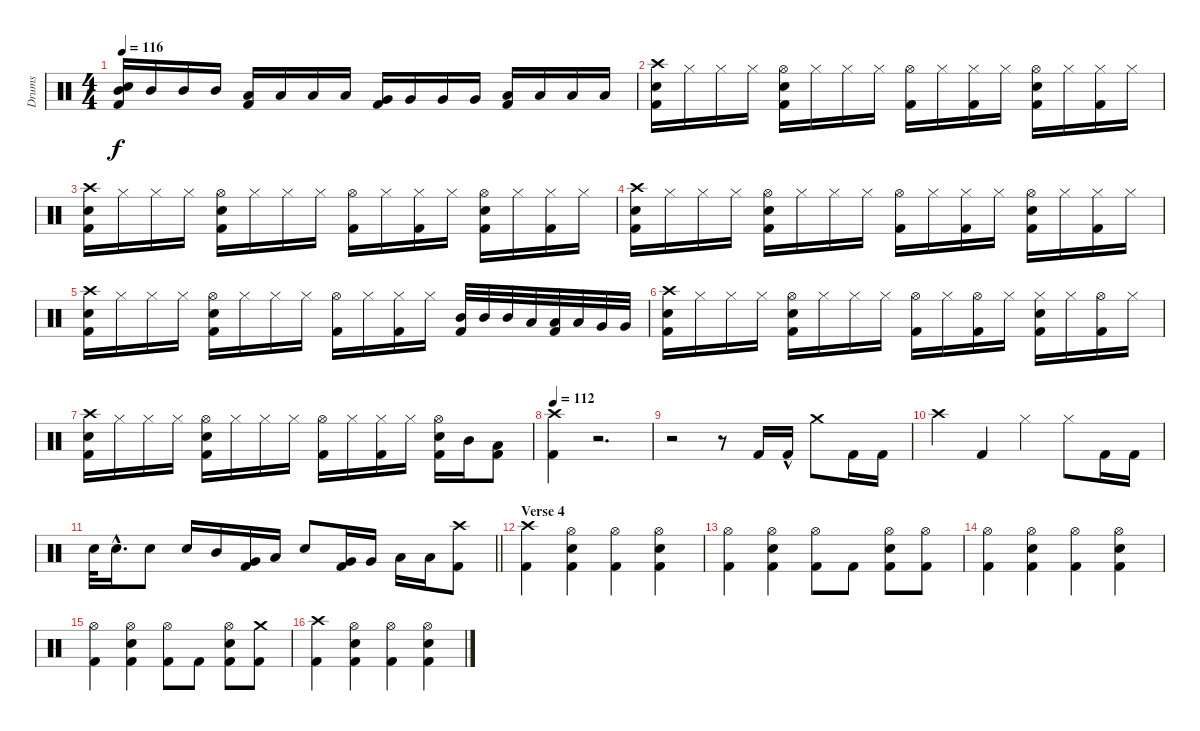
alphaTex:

\track ("Drums" "Drums") {instrument percussion}
\staff {score}
\articulation defaults
\ts (4 4)
\tempo 116
\clef neutral
\ks c
("Mid Tom (hit)" "Snare (hit) 2" "Kick (hit) 2").16{dy f} "Mid Tom (hit)".16 "Mid Tom (hit)".16 "Mid Tom (hit)".16 ("Low Tom (hit)" "Kick (hit) 2").16 "Low Tom (hit)".16 "Low Tom (hit)".16 "Low Tom (hit)".16 ("Very Low Tom (hit)" "Kick (hit) 2").16 "Very Low Tom (hit)".16 "Very Low Tom (hit)".16 "Very Low Tom (hit)".16 ("Low Floor Tom (hit)" "Kick (hit) 2").16 "Low Floor Tom (hit)".16 "Low Floor Tom (hit)".16 "Low Floor Tom (hit)".16 |
("Kick (hit) 2" "Snare (hit) 2" "Crash high (hit)").16 "Hi-Hat (closed)".16 "Hi-Hat (closed)".16 "Hi-Hat (closed)".16 ("Hi-Hat (open)" "Kick (hit) 2" "Snare (hit) 2").16 "Hi-Hat (closed)".16 "Hi-Hat (closed)".16 "Hi-Hat (closed)".16 ("Kick (hit) 2" "Hi-Hat (open)").16 "Hi-Hat (closed)".16 ("Kick (hit) 2" "Hi-Hat (closed)").16 "Hi-Hat (closed)".16 ("Snare (hit) 2" "Kick (hit) 2" "Hi-Hat (open)").16 "Hi-Hat (closed)".16 ("Kick (hit) 2" "Hi-Hat (closed)").16 "Hi-Hat (closed)".16 |
("Kick (hit) 2" "Snare (hit) 2" "Crash high (hit)").16 "Hi-Hat (closed)".16 "Hi-Hat (closed)".16 "Hi-Hat (closed)".16 ("Hi-Hat (open)" "Kick (hit) 2" "Snare (hit) 2").16 "Hi-Hat (closed)".16 "Hi-Hat (closed)".16 "Hi-Hat (closed)".16 ("Kick (hit) 2" "Hi-Hat (open)").16 "Hi-Hat (closed)".16 ("Kick (hit) 2" "Hi-Hat (closed)").16 "Hi-Hat (closed)".16 ("Snare (hit) 2" "Kick (hit) 2" "Hi-Hat (open)").16 "Hi-Hat (closed)".16 ("Kick (hit) 2" "Hi-Hat (closed)").16 "Hi-Hat (closed)".16 |
("Kick (hit) 2" "Snare (hit) 2" "Crash high (hit)").16 "Hi-Hat (closed)".16 "Hi-Hat (closed)".16 "Hi-Hat (closed)".16 ("Hi-Hat (open)" "Kick (hit) 2" "Snare (hit) 2").16 "Hi-Hat (closed)".16 "Hi-Hat (closed)".16 "Hi-Hat (closed)".16 ("Kick (hit) 2" "Hi-Hat (open)").16 "Hi-Hat (closed)".16 ("Kick (hit) 2" "Hi-Hat (closed)").16 "Hi-Hat (closed)".16 ("Snare (hit) 2" "Kick (hit) 2" "Hi-Hat (open)").16 "Hi-Hat (closed)".16 ("Kick (hit) 2" "Hi-Hat (closed)").16 "Hi-Hat (closed)".16 |
("Kick (hit) 2" "Snare (hit) 2" "Crash high (hit)").16 "Hi-Hat (closed)".16 "Hi-Hat (closed)".16 "Hi-Hat (closed)".16 ("Hi-Hat (open)" "Kick (hit) 2" "Snare (hit) 2").16 "Hi-Hat (closed)".16 "Hi-Hat (closed)".16 "Hi-Hat (closed)".16 ("Kick (hit) 2" "Hi-Hat (open)").16 "Hi-Hat (closed)".16 ("Hi-Hat (closed)" "Kick (hit) 2").16 "Hi-Hat (closed)".16 ("Kick (hit) 2" "Mid Tom (hit)").32 "Mid Tom (hit)".32 "Mid Tom (hit)".32 "Low Tom (hit)".32 ("Kick (hit) 2" "Low Tom (hit)").32 "Low Tom (hit)".32 "Very Low Tom (hit)".32 "Very Low Tom (hit)".32 |
("Kick (hit) 2" "Snare (hit) 2" "Crash high (hit)").16 "Hi-Hat (closed)".16 "Hi-Hat (closed)".16 "Hi-Hat (closed)".16 ("Hi-Hat (open)" "Kick (hit) 2" "Snare (hit) 2").16 "Hi-Hat (closed)".16 "Hi-Hat (closed)".16 "Hi-Hat (closed)".16 ("Kick (hit) 2" "Hi-Hat (open)").16 "Hi-Hat (closed)".16 ("Kick (hit) 2" "Hi-Hat (open)").16 "Hi-Hat (closed)".16 ("Snare (hit) 2" "Kick (hit) 2" "Hi-Hat (closed)").16 "Hi-Hat (closed)".16 ("Kick (hit) 2" "Hi-Hat (open)").16 "Hi-Hat (closed)".16 |
("Kick (hit) 2" "Snare (hit) 2" "Crash high (hit)").16 "Hi-Hat (closed)".16 "Hi-Hat (closed)".16 "Hi-Hat (closed)".16 ("Hi-Hat (open)" "Kick (hit) 2" "Snare (hit) 2").16 "Hi-Hat (closed)".16 "Hi-Hat (closed)".16 "Hi-Hat (closed)".16 ("Kick (hit) 2" "Hi-Hat (open)").16 "Hi-Hat (closed)".16 ("Kick (hit) 2" "Hi-Hat (closed)").16 "Hi-Hat (closed)".16 ("Snare (hit) 2" "Kick (hit) 2" "Hi-Hat (open)").16 "Mid Tom (hit)".16 ("Kick (hit) 2" "Low Tom (hit)").8 |
\tempo 112
("Kick (hit) 2" "Crash high (hit)").4 r.2{d} |
r.2 r.8 "Kick (hit) 2".16 "Kick (hit) 2"{hac}.16 "Crash medium (hit)".8 "Kick (hit) 2".16 "Kick (hit) 2".16 |
"Crash high (hit)".4 "Kick (hit) 2".4 "Hi-Hat (closed)".4 "Hi-Hat (closed)".8 "Kick (hit) 2".16 "Kick (hit) 2".16 |
\barLineRight lightlight "Snare (hit) 2".32 "Snare (hit) 2"{hac}.16{d} "Snare (hit) 2".8 "Snare (hit) 2".16 "Mid Tom (hit)".16
("Kick (hit) 2" "Very Low Tom (hit)").16 "Low Floor Tom (hit)".16 "Snare (hit) 2".8 ("Kick (hit) 2" "Very Low Tom (hit)").16 "Very Low Tom (hit)".16 "Low Floor Tom (hit)".16 "Low Floor Tom (hit)".16 ("Kick (hit) 2" "Crash high (hit)").8 |
\section ("" "Verse 4")
("Kick (hit) 2" "Crash high (hit)").4 ("Snare (hit) 2" "Hi-Hat (open)" "Kick (hit) 2").4 ("Kick (hit) 2" "Hi-Hat (open)").4 ("Snare (hit) 2" "Kick (hit) 2" "Hi-Hat (open)").4 |
("Hi-Hat (open)" "Kick (hit) 2").4 ("Snare (hit) 2" "Hi-Hat (open)" "Kick (hit) 2").4 ("Hi-Hat (open)" "Kick (hit) 2").8 "Kick (hit) 2".8 ("Snare (hit) 2" "Hi-Hat (open)" "Kick (hit) 2").8 ("Kick (hit) 2" "Hi-Hat (open)").8 |
("Kick (hit) 2" "Hi-Hat (open)").4 ("Hi-Hat (open)" "Kick (hit) 2" "Snare (hit) 2").4 ("Hi-Hat (open)" "Kick (hit) 2").4 ("Hi-Hat (open)" "Kick (hit) 2" "Snare (hit) 2").4 |
("Hi-Hat (open)" "Kick (hit) 2").4 ("Hi-Hat (open)" "Kick (hit) 2" "Snare (hit) 2").4 ("Hi-Hat (open)" "Kick (hit) 2").8 "Kick (hit) 2".8 ("Kick (hit) 2" "Hi-Hat (open)" "Snare (hit) 2").8 ("Kick (hit) 2" "Crash medium (hit)").8 |
("Kick (hit) 2" "Crash high (hit)").4 ("Hi-Hat (open)" "Kick (hit) 2" "Snare (hit) 2").4 ("Hi-Hat (open)" "Kick (hit) 2").4 ("Snare (hit) 2" "Kick (hit) 2" "Hi-Hat (open)").4
